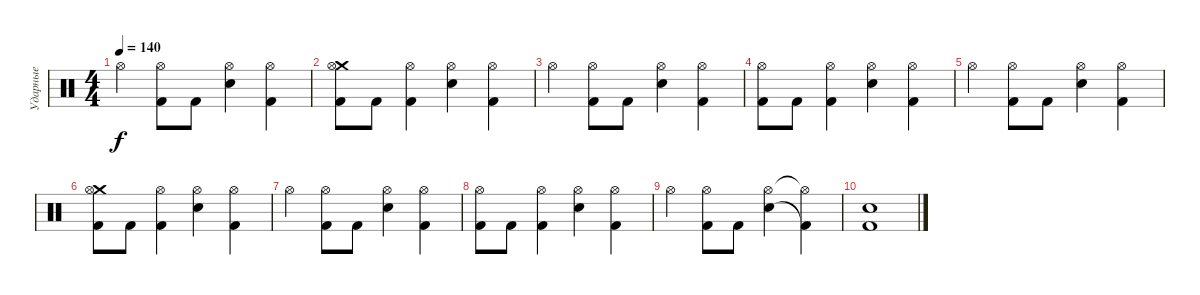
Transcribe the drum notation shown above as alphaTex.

\track ("Ударные" "Ударные") {instrument percussion}
\staff {score}
\articulation defaults
\ts (4 4)
\tempo 140
\clef neutral
\ks c "Hi-Hat (open)".4{dy f}
("Hi-Hat (open)" "Kick (hit) 2").8 "Kick (hit) 2".8 ("Hi-Hat (open)" "Electric Snare (hit)").4 ("Hi-Hat (open)" "Kick (hit) 2").4 |
("Crash medium (hit)" "Hi-Hat (open)" "Kick (hit) 2").8 "Kick (hit) 2".8 ("Hi-Hat (open)" "Kick (hit) 2").4 ("Hi-Hat (open)" "Electric Snare (hit)").4 ("Hi-Hat (open)" "Kick (hit) 2").4 |
"Hi-Hat (open)".4 ("Hi-Hat (open)" "Kick (hit) 2").8 "Kick (hit) 2".8 ("Hi-Hat (open)" "Electric Snare (hit)").4 ("Hi-Hat (open)" "Kick (hit) 2").4 |
("Hi-Hat (open)" "Kick (hit) 2").8 "Kick (hit) 2".8 ("Hi-Hat (open)" "Kick (hit) 2").4 ("Hi-Hat (open)" "Electric Snare (hit)").4 ("Hi-Hat (open)" "Kick (hit) 2").4 |
"Hi-Hat (open)".4 ("Hi-Hat (open)" "Kick (hit) 2").8 "Kick (hit) 2".8 ("Hi-Hat (open)" "Electric Snare (hit)").4 ("Hi-Hat (open)" "Kick (hit) 2").4 |
("Crash medium (hit)" "Hi-Hat (open)" "Kick (hit) 2").8 "Kick (hit) 2".8 ("Hi-Hat (open)" "Kick (hit) 2").4 ("Hi-Hat (open)" "Electric Snare (hit)").4 ("Hi-Hat (open)" "Kick (hit) 2").4 |
"Hi-Hat (open)".4 ("Hi-Hat (open)" "Kick (hit) 2").8 "Kick (hit) 2".8 ("Hi-Hat (open)" "Electric Snare (hit)").4 ("Hi-Hat (open)" "Kick (hit) 2").4 |
("Hi-Hat (open)" "Kick (hit) 2").8 "Kick (hit) 2".8 ("Hi-Hat (open)" "Kick (hit) 2").4 ("Hi-Hat (open)" "Electric Snare (hit)").4 ("Hi-Hat (open)" "Kick (hit) 2").4 |
"Hi-Hat (open)".4 ("Hi-Hat (open)" "Kick (hit) 2").8 "Kick (hit) 2".8 ("Hi-Hat (open)" "Electric Snare (hit)").4 ("Hi-Hat (open)"{t} "Kick (hit) 2"{t}).4 |
("Snare (hit)" "Kick (hit) 2").1
